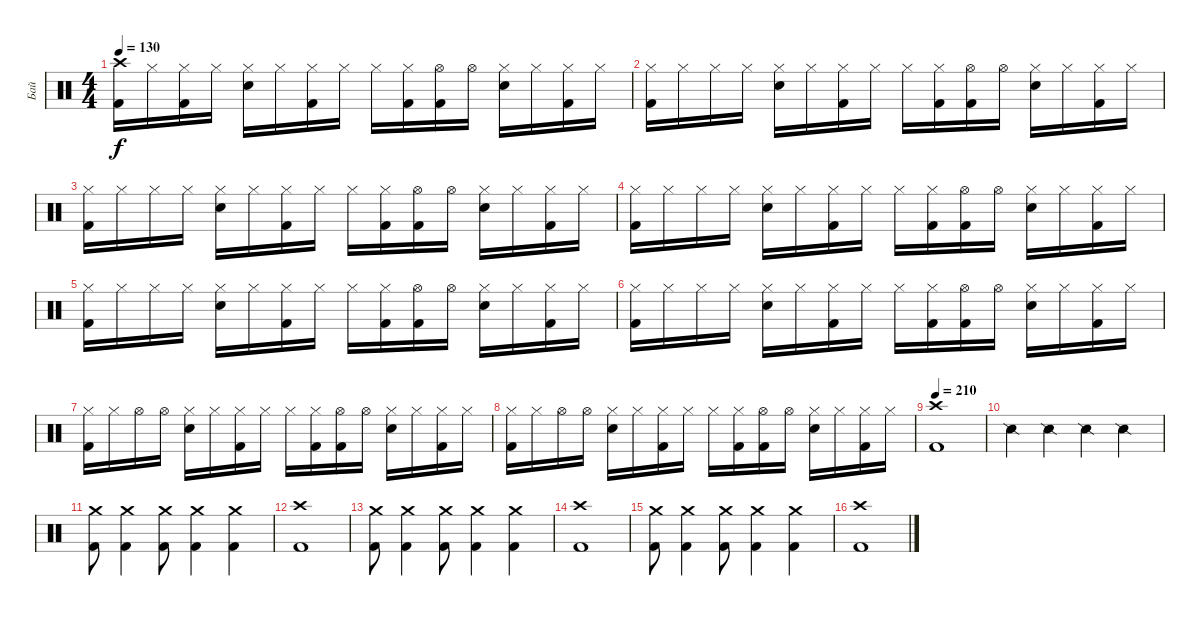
\track ("Бай" "Бай") {instrument percussion}
\staff {score}
\articulation defaults
\ts (4 4)
\tempo 130
\clef neutral
\ks c
("Kick (hit) 2" "Crash high (hit)").16{dy f} "Hi-Hat (closed)".16 ("Kick (hit) 2" "Hi-Hat (closed)").16 "Hi-Hat (closed)".16 ("Electric Snare (hit)" "Hi-Hat (closed)").16 "Hi-Hat (closed)".16 ("Kick (hit) 2" "Hi-Hat (closed)").16 "Hi-Hat (closed)".16 "Hi-Hat (closed)".16 ("Kick (hit) 2" "Hi-Hat (closed)").16 ("Kick (hit) 2" "Hi-Hat (open)").16 "Hi-Hat (open)".16 ("Electric Snare (hit)" "Hi-Hat (closed)").16 "Hi-Hat (closed)".16 ("Kick (hit) 2" "Hi-Hat (closed)").16 "Hi-Hat (closed)".16 |
("Kick (hit) 2" "Hi-Hat (closed)").16 "Hi-Hat (closed)".16 "Hi-Hat (closed)".16 "Hi-Hat (closed)".16 ("Electric Snare (hit)" "Hi-Hat (closed)").16 "Hi-Hat (closed)".16 ("Kick (hit) 2" "Hi-Hat (closed)").16 "Hi-Hat (closed)".16 "Hi-Hat (closed)".16 ("Kick (hit) 2" "Hi-Hat (closed)").16 ("Kick (hit) 2" "Hi-Hat (open)").16 "Hi-Hat (open)".16 ("Electric Snare (hit)" "Hi-Hat (closed)").16 "Hi-Hat (closed)".16 ("Kick (hit) 2" "Hi-Hat (closed)").16 "Hi-Hat (closed)".16 |
("Kick (hit) 2" "Hi-Hat (closed)").16 "Hi-Hat (closed)".16 "Hi-Hat (closed)".16 "Hi-Hat (closed)".16 ("Electric Snare (hit)" "Hi-Hat (closed)").16 "Hi-Hat (closed)".16 ("Kick (hit) 2" "Hi-Hat (closed)").16 "Hi-Hat (closed)".16 "Hi-Hat (closed)".16 ("Kick (hit) 2" "Hi-Hat (closed)").16 ("Kick (hit) 2" "Hi-Hat (open)").16 "Hi-Hat (open)".16 ("Electric Snare (hit)" "Hi-Hat (closed)").16 "Hi-Hat (closed)".16 ("Kick (hit) 2" "Hi-Hat (closed)").16 "Hi-Hat (closed)".16 |
("Kick (hit) 2" "Hi-Hat (closed)").16 "Hi-Hat (closed)".16 "Hi-Hat (closed)".16 "Hi-Hat (closed)".16 ("Electric Snare (hit)" "Hi-Hat (closed)").16 "Hi-Hat (closed)".16 ("Kick (hit) 2" "Hi-Hat (closed)").16 "Hi-Hat (closed)".16 "Hi-Hat (closed)".16 ("Kick (hit) 2" "Hi-Hat (closed)").16 ("Kick (hit) 2" "Hi-Hat (open)").16 "Hi-Hat (open)".16 ("Electric Snare (hit)" "Hi-Hat (closed)").16 "Hi-Hat (closed)".16 ("Kick (hit) 2" "Hi-Hat (closed)").16 "Hi-Hat (closed)".16 |
("Kick (hit) 2" "Hi-Hat (closed)").16 "Hi-Hat (closed)".16 "Hi-Hat (closed)".16 "Hi-Hat (closed)".16 ("Electric Snare (hit)" "Hi-Hat (closed)").16 "Hi-Hat (closed)".16 ("Kick (hit) 2" "Hi-Hat (closed)").16 "Hi-Hat (closed)".16 "Hi-Hat (closed)".16 ("Kick (hit) 2" "Hi-Hat (closed)").16 ("Kick (hit) 2" "Hi-Hat (open)").16 "Hi-Hat (open)".16 ("Electric Snare (hit)" "Hi-Hat (closed)").16 "Hi-Hat (closed)".16 ("Kick (hit) 2" "Hi-Hat (closed)").16 "Hi-Hat (closed)".16 |
("Kick (hit) 2" "Hi-Hat (closed)").16 "Hi-Hat (closed)".16 "Hi-Hat (closed)".16 "Hi-Hat (closed)".16 ("Electric Snare (hit)" "Hi-Hat (closed)").16 "Hi-Hat (closed)".16 ("Kick (hit) 2" "Hi-Hat (closed)").16 "Hi-Hat (closed)".16 "Hi-Hat (closed)".16 ("Kick (hit) 2" "Hi-Hat (closed)").16 ("Kick (hit) 2" "Hi-Hat (open)").16 "Hi-Hat (open)".16 ("Electric Snare (hit)" "Hi-Hat (closed)").16 "Hi-Hat (closed)".16 ("Kick (hit) 2" "Hi-Hat (closed)").16 "Hi-Hat (closed)".16 |
("Kick (hit) 2" "Hi-Hat (closed)").16 "Hi-Hat (closed)".16 "Hi-Hat (open)".16 "Hi-Hat (open)".16 ("Electric Snare (hit)" "Hi-Hat (closed)").16 "Hi-Hat (closed)".16 ("Kick (hit) 2" "Hi-Hat (closed)").16 "Hi-Hat (closed)".16 "Hi-Hat (closed)".16 ("Kick (hit) 2" "Hi-Hat (closed)").16 ("Kick (hit) 2" "Hi-Hat (open)").16 "Hi-Hat (open)".16 ("Electric Snare (hit)" "Hi-Hat (closed)").16 "Hi-Hat (closed)".16 ("Kick (hit) 2" "Hi-Hat (closed)").16 "Hi-Hat (closed)".16 |
("Kick (hit) 2" "Hi-Hat (closed)").16 "Hi-Hat (closed)".16 "Hi-Hat (open)".16 "Hi-Hat (open)".16 ("Electric Snare (hit)" "Hi-Hat (closed)").16 "Hi-Hat (closed)".16 ("Kick (hit) 2" "Hi-Hat (closed)").16 "Hi-Hat (closed)".16 "Hi-Hat (closed)".16 ("Kick (hit) 2" "Hi-Hat (closed)").16 ("Kick (hit) 2" "Hi-Hat (open)").16 "Hi-Hat (open)".16 ("Electric Snare (hit)" "Hi-Hat (closed)").16 "Hi-Hat (closed)".16 ("Kick (hit) 2" "Hi-Hat (closed)").16 "Hi-Hat (closed)".16 |
\tempo 210
("Crash high (hit)" "Kick (hit) 2").1 |
"Snare (side stick) 2".4 "Snare (side stick) 2".4 "Snare (side stick) 2".4 "Snare (side stick) 2".4 |
("Kick (hit) 2" "Crash medium (hit)").8 ("Kick (hit) 2" "Crash medium (hit)").4 ("Kick (hit) 2" "Crash medium (hit)").8 ("Kick (hit) 2" "Crash medium (hit)").4 ("Kick (hit) 2" "Crash medium (hit)").4 |
("Kick (hit) 2" "Crash high (hit)").1 |
("Kick (hit) 2" "Crash medium (hit)").8 ("Kick (hit) 2" "Crash medium (hit)").4 ("Kick (hit) 2" "Crash medium (hit)").8 ("Kick (hit) 2" "Crash medium (hit)").4 ("Kick (hit) 2" "Crash medium (hit)").4 |
("Kick (hit) 2" "Crash high (hit)").1 |
("Kick (hit) 2" "Crash medium (hit)").8 ("Kick (hit) 2" "Crash medium (hit)").4 ("Kick (hit) 2" "Crash medium (hit)").8 ("Kick (hit) 2" "Crash medium (hit)").4 ("Kick (hit) 2" "Crash medium (hit)").4 |
("Kick (hit) 2" "Crash high (hit)").1
